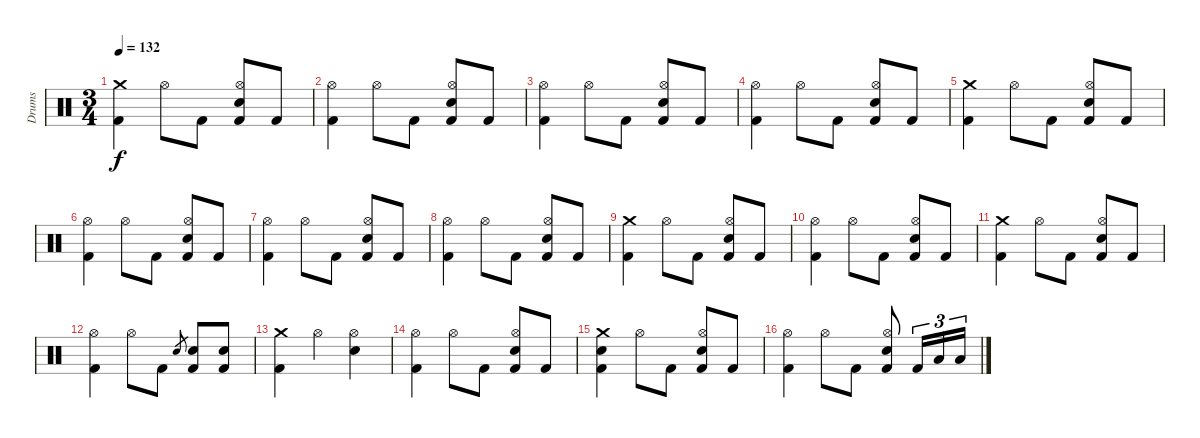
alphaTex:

\track ("Drums" "Drums") {instrument percussion}
\staff {score}
\articulation defaults
\ts (3 4)
\tempo 132
\clef neutral
\ks c
("Crash medium (hit)" "Kick (hit) 2").4{dy f} "Hi-Hat (open)".8 "Kick (hit) 2".8 ("Hi-Hat (open)" "Electric Snare (hit)" "Kick (hit) 2").8 "Kick (hit) 2".8 |
("Hi-Hat (open)" "Kick (hit) 2").4 "Hi-Hat (open)".8 "Kick (hit) 2".8 ("Hi-Hat (open)" "Electric Snare (hit)" "Kick (hit) 2").8 "Kick (hit) 2".8 |
("Hi-Hat (open)" "Kick (hit) 2").4 "Hi-Hat (open)".8 "Kick (hit) 2".8 ("Hi-Hat (open)" "Electric Snare (hit)" "Kick (hit) 2").8 "Kick (hit) 2".8 |
("Hi-Hat (open)" "Kick (hit) 2").4 "Hi-Hat (open)".8 "Kick (hit) 2".8 ("Hi-Hat (open)" "Electric Snare (hit)" "Kick (hit) 2").8 "Kick (hit) 2".8 |
("Crash medium (hit)" "Kick (hit) 2").4 "Hi-Hat (open)".8 "Kick (hit) 2".8 ("Hi-Hat (open)" "Electric Snare (hit)" "Kick (hit) 2").8 "Kick (hit) 2".8 |
("Hi-Hat (open)" "Kick (hit) 2").4 "Hi-Hat (open)".8 "Kick (hit) 2".8 ("Hi-Hat (open)" "Electric Snare (hit)" "Kick (hit) 2").8 "Kick (hit) 2".8 |
("Hi-Hat (open)" "Kick (hit) 2").4 "Hi-Hat (open)".8 "Kick (hit) 2".8 ("Hi-Hat (open)" "Electric Snare (hit)" "Kick (hit) 2").8 "Kick (hit) 2".8 |
("Hi-Hat (open)" "Kick (hit) 2").4 "Hi-Hat (open)".8 "Kick (hit) 2".8 ("Hi-Hat (open)" "Electric Snare (hit)" "Kick (hit) 2").8 "Kick (hit) 2".8 |
("Crash medium (hit)" "Kick (hit) 2").4 "Hi-Hat (open)".8 "Kick (hit) 2".8 ("Hi-Hat (open)" "Electric Snare (hit)" "Kick (hit) 2").8 "Kick (hit) 2".8 |
("Hi-Hat (open)" "Kick (hit) 2").4 "Hi-Hat (open)".8 "Kick (hit) 2".8 ("Hi-Hat (open)" "Electric Snare (hit)" "Kick (hit) 2").8 "Kick (hit) 2".8 |
("Crash medium (hit)" "Kick (hit) 2").4 "Hi-Hat (open)".8 "Kick (hit) 2".8 ("Hi-Hat (open)" "Electric Snare (hit)" "Kick (hit) 2").8 "Kick (hit) 2".8 |
("Hi-Hat (open)" "Kick (hit) 2").4 "Hi-Hat (open)".8 "Kick (hit) 2".8 "Electric Snare (hit)".8{gr} ("Electric Snare (hit)" "Kick (hit) 2").8 ("Electric Snare (hit)" "Kick (hit) 2").8 |
("Crash medium (hit)" "Kick (hit) 2").4 "Hi-Hat (open)".4 ("Hi-Hat (open)" "Electric Snare (hit)").4 |
("Hi-Hat (open)" "Kick (hit) 2").4 "Hi-Hat (open)".8 "Kick (hit) 2".8 ("Hi-Hat (open)" "Electric Snare (hit)" "Kick (hit) 2").8 "Kick (hit) 2".8 |
("Crash medium (hit)" "Electric Snare (hit)" "Kick (hit) 2").4 "Hi-Hat (open)".8 "Kick (hit) 2".8 ("Hi-Hat (open)" "Electric Snare (hit)" "Kick (hit) 2").8 "Kick (hit) 2".8 |
("Hi-Hat (open)" "Kick (hit) 2").4 "Hi-Hat (open)".8 "Kick (hit) 2".8 ("Hi-Hat (open)" "Electric Snare (hit)" "Kick (hit) 2").8 "Kick (hit) 2".16{tu (3 2)} "Low Tom (hit)".16{tu (3 2)} "Low Tom (hit)".16{tu (3 2)}
